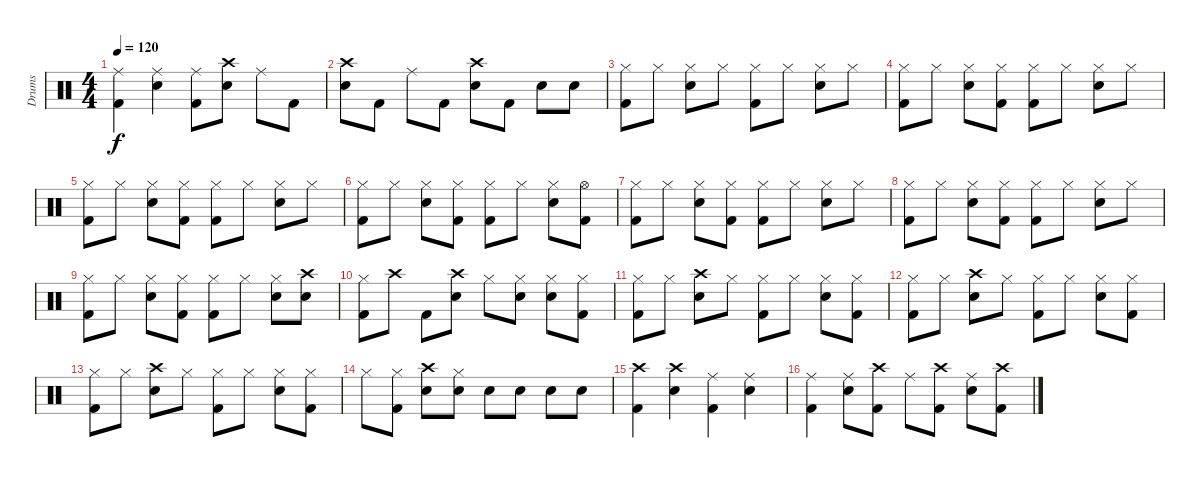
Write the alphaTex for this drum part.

\track ("Drums" "Drums") {instrument percussion}
\staff {score}
\articulation defaults
\ts (4 4)
\tempo 120
\clef neutral
\ks c
("Ride (middle)" "Kick (hit) 2").4{dy f} ("Ride (middle)" "Electric Snare (hit)").4 ("Ride (middle)" "Kick (hit) 2").8 ("Crash high (hit)" "Electric Snare (hit)").8 "Ride (middle)".8 "Kick (hit) 2".8 |
("Crash high (hit)" "Electric Snare (hit)").8 "Kick (hit) 2".8 "Ride (middle)".8 "Kick (hit) 2".8 ("Crash high (hit)" "Electric Snare (hit)").8 "Kick (hit) 2".8 "Electric Snare (hit)".8 "Electric Snare (hit)".8 |
("Hi-Hat (closed)" "Kick (hit) 2").8 "Hi-Hat (closed)".8 ("Hi-Hat (closed)" "Electric Snare (hit)").8 "Hi-Hat (closed)".8 ("Hi-Hat (closed)" "Kick (hit) 2").8 "Hi-Hat (closed)".8 ("Hi-Hat (closed)" "Electric Snare (hit)").8 "Hi-Hat (closed)".8 |
("Hi-Hat (closed)" "Kick (hit) 2").8 "Hi-Hat (closed)".8 ("Hi-Hat (closed)" "Electric Snare (hit)").8 ("Hi-Hat (closed)" "Kick (hit) 2").8 ("Hi-Hat (closed)" "Kick (hit) 2").8 "Hi-Hat (closed)".8 ("Hi-Hat (closed)" "Electric Snare (hit)").8 "Hi-Hat (closed)".8 |
("Hi-Hat (closed)" "Kick (hit) 2").8 "Hi-Hat (closed)".8 ("Hi-Hat (closed)" "Electric Snare (hit)").8 ("Hi-Hat (closed)" "Kick (hit) 2").8 ("Hi-Hat (closed)" "Kick (hit) 2").8 "Hi-Hat (closed)".8 ("Hi-Hat (closed)" "Electric Snare (hit)").8 "Hi-Hat (closed)".8 |
("Hi-Hat (closed)" "Kick (hit) 2").8 "Hi-Hat (closed)".8 ("Hi-Hat (closed)" "Electric Snare (hit)").8 ("Hi-Hat (closed)" "Kick (hit) 2").8 ("Hi-Hat (closed)" "Kick (hit) 2").8 "Hi-Hat (closed)".8 ("Hi-Hat (closed)" "Electric Snare (hit)").8 ("Hi-Hat (open)" "Kick (hit) 2").8 |
("Hi-Hat (closed)" "Kick (hit) 2").8 "Hi-Hat (closed)".8 ("Hi-Hat (closed)" "Electric Snare (hit)").8 ("Hi-Hat (closed)" "Kick (hit) 2").8 ("Hi-Hat (closed)" "Kick (hit) 2").8 "Hi-Hat (closed)".8 ("Hi-Hat (closed)" "Electric Snare (hit)").8 "Hi-Hat (closed)".8 |
("Hi-Hat (closed)" "Kick (hit) 2").8 "Hi-Hat (closed)".8 ("Hi-Hat (closed)" "Electric Snare (hit)").8 ("Hi-Hat (closed)" "Kick (hit) 2").8 ("Hi-Hat (closed)" "Kick (hit) 2").8 "Hi-Hat (closed)".8 ("Hi-Hat (closed)" "Electric Snare (hit)").8 "Hi-Hat (closed)".8 |
("Hi-Hat (closed)" "Kick (hit) 2").8 "Hi-Hat (closed)".8 ("Hi-Hat (closed)" "Electric Snare (hit)").8 ("Hi-Hat (closed)" "Kick (hit) 2").8 ("Hi-Hat (closed)" "Kick (hit) 2").8 "Hi-Hat (closed)".8 ("Hi-Hat (closed)" "Electric Snare (hit)").8 ("Crash high (hit)" "Electric Snare (hit)").8 |
("Hi-Hat (closed)" "Kick (hit) 2").8 "Crash high (hit)".8 "Kick (hit) 2".8 ("Crash high (hit)" "Electric Snare (hit)").8 "Hi-Hat (closed)".8 ("Hi-Hat (closed)" "Electric Snare (hit)").8 ("Hi-Hat (closed)" "Electric Snare (hit)").8 ("Hi-Hat (closed)" "Kick (hit) 2").8 |
("Hi-Hat (closed)" "Kick (hit) 2").8 "Hi-Hat (closed)".8 ("Crash high (hit)" "Electric Snare (hit)").8 "Hi-Hat (closed)".8 ("Hi-Hat (closed)" "Kick (hit) 2").8 "Hi-Hat (closed)".8 ("Hi-Hat (closed)" "Electric Snare (hit)").8 ("Hi-Hat (closed)" "Kick (hit) 2").8 |
("Hi-Hat (closed)" "Kick (hit) 2").8 "Hi-Hat (closed)".8 ("Crash high (hit)" "Electric Snare (hit)").8 "Hi-Hat (closed)".8 ("Hi-Hat (closed)" "Kick (hit) 2").8 "Hi-Hat (closed)".8 ("Hi-Hat (closed)" "Electric Snare (hit)").8 ("Hi-Hat (closed)" "Kick (hit) 2").8 |
("Hi-Hat (closed)" "Kick (hit) 2").8 "Hi-Hat (closed)".8 ("Crash high (hit)" "Electric Snare (hit)").8 "Hi-Hat (closed)".8 ("Hi-Hat (closed)" "Kick (hit) 2").8 "Hi-Hat (closed)".8 ("Hi-Hat (closed)" "Electric Snare (hit)").8 ("Hi-Hat (closed)" "Kick (hit) 2").8 |
"Hi-Hat (closed)".8 ("Hi-Hat (closed)" "Kick (hit) 2").8 ("Crash high (hit)" "Electric Snare (hit)").8 ("Hi-Hat (closed)" "Electric Snare (hit)").8 "Electric Snare (hit)".8 "Electric Snare (hit)".8 "Electric Snare (hit)".8 "Electric Snare (hit)".8 |
("Crash high (hit)" "Kick (hit) 2").4 ("Crash high (hit)" "Electric Snare (hit)").4 ("Ride (middle)" "Kick (hit) 2").4 ("Ride (middle)" "Electric Snare (hit)").4 |
("Ride (middle)" "Kick (hit) 2").4 ("Ride (middle)" "Electric Snare (hit)").8 ("Crash high (hit)" "Kick (hit) 2").8 "Ride (middle)".8 ("Crash high (hit)" "Kick (hit) 2").8 ("Ride (middle)" "Electric Snare (hit)").8 ("Crash high (hit)" "Kick (hit) 2").8
